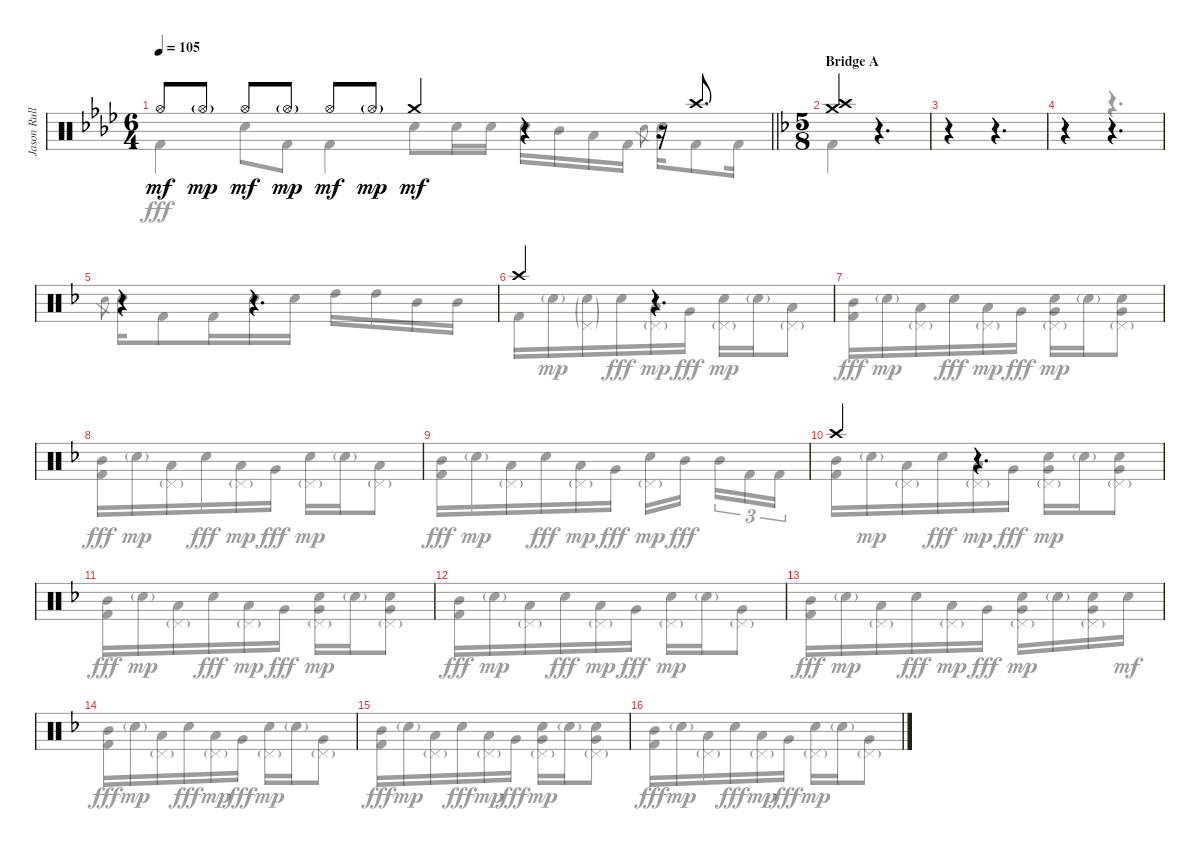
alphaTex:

\track ("Jason Rullo Drums" "Jason Rull") {instrument percussion}
\staff {score}
\articulation defaults
\voice
\ts (6 4)
\tempo 105
\clef neutral
\barLineRight lightlight
\ks fminor "Hi-Hat (open)".8{dy mf} "Hi-Hat (open)"{g}.8{dy mp} "Hi-Hat (open)".8{dy mf} "Hi-Hat (open)"{g}.8{dy mp} "Hi-Hat (open)".8{dy mf} "Hi-Hat (open)"{g}.8{dy mp} "Crash medium (hit)".4{dy mf}
r.4 r.16 "Crash high (hit)".8{d} |
\ts (5 8)
\section ("" "Bridge A")
\ks dminor
("Crash high (hit)" "Crash medium (hit)").4 r.4{d} |
r.4 r.4{d} |
r.4 r.4{d} |
r.4 r.4{d} |
"Crash high (hit)".4 r.4{d} |
|
|
|
"Crash high (hit)".4 r.4{d} |
|
|
|
|
|
\voice
\clef neutral
\ottava regular
\simile none
\barLineRight lightlight
\ks fminor "Kick (hit) 2".4{dy fff} "Electric Snare (hit)".8 "Kick (hit) 2".8 "Kick (hit) 2".4 "Electric Snare (hit)".8 "Electric Snare (hit)".16 "Electric Snare (hit)".16 "Electric Snare (hit)".16 "Mid Tom (hit)".16 "Low Tom (hit)".16 "Kick (hit) 2".16 "Electric Snare (hit)".8{gr} "Electric Snare (hit)".16 "Kick (hit) 2".8 "Kick (hit) 2".16
|
\ks dminor "Kick (hit) 2".4
r.4{d} |
r.4 r.4{d} |
r.4 r.4{d} |
"Electric Snare (hit)".8{gr} "Electric Snare (hit)".16 "Kick (hit) 2".8 "Kick (hit) 2".16 "Electric Snare (hit)".16 "Electric Snare (hit)".16 "High Tom (hit)".16 "High Tom (hit)".16 "Mid Tom (hit)".16 "Mid Tom (hit)".16 |
"Kick (hit) 2".16 "Electric Snare (hit)"{g}.16{dy mp} ("Electric Snare (hit)"{g} "Pedal Hi-Hat (hit)"{g}).16 "Electric Snare (hit)".16{dy fff} ("Low Tom (hit)" "Pedal Hi-Hat (hit)"{g}).16{dy mp} "Very Low Tom (hit)".16{dy fff} ("Electric Snare (hit)" "Pedal Hi-Hat (hit)"{g}).16{dy mp} "Electric Snare (hit)"{g}.16 ("Low Tom (hit)" "Pedal Hi-Hat (hit)"{g}).8 |
("Mid Tom (hit)" "Kick (hit) 2").16{dy fff} "Electric Snare (hit)"{g}.16{dy mp} ("Low Tom (hit)" "Pedal Hi-Hat (hit)"{g}).16 "Electric Snare (hit)".16{dy fff} ("Low Tom (hit)" "Pedal Hi-Hat (hit)"{g}).16{dy mp} "Very Low Tom (hit)".16{dy fff} ("Electric Snare (hit)" "Very Low Tom (hit)" "Pedal Hi-Hat (hit)"{g}).16{dy mp} "Electric Snare (hit)"{g}.16 ("Electric Snare (hit)" "Very Low Tom (hit)" "Pedal Hi-Hat (hit)"{g}).8 |
("Mid Tom (hit)" "Kick (hit) 2").16{dy fff} "Electric Snare (hit)"{g}.16{dy mp} ("Low Tom (hit)" "Pedal Hi-Hat (hit)"{g}).16 "Electric Snare (hit)".16{dy fff} ("Low Tom (hit)" "Pedal Hi-Hat (hit)"{g}).16{dy mp} "Very Low Tom (hit)".16{dy fff} ("Electric Snare (hit)" "Pedal Hi-Hat (hit)"{g}).16{dy mp} "Electric Snare (hit)"{g}.16 ("Low Tom (hit)" "Pedal Hi-Hat (hit)"{g}).8 |
("Mid Tom (hit)" "Kick (hit) 2").16{dy fff} "Electric Snare (hit)"{g}.16{dy mp} ("Low Tom (hit)" "Pedal Hi-Hat (hit)"{g}).16 "Electric Snare (hit)".16{dy fff} ("Low Tom (hit)" "Pedal Hi-Hat (hit)"{g}).16{dy mp} "Very Low Tom (hit)".16{dy fff} ("Electric Snare (hit)" "Pedal Hi-Hat (hit)"{g}).16{dy mp} "Mid Tom (hit)".16{dy fff} "Mid Tom (hit)".16{tu (3 2)} "Kick (hit) 2".16{tu (3 2)} "Kick (hit) 2".16{tu (3 2)} |
("Mid Tom (hit)" "Kick (hit) 2").16 "Electric Snare (hit)"{g}.16{dy mp} ("Low Tom (hit)" "Pedal Hi-Hat (hit)"{g}).16 "Electric Snare (hit)".16{dy fff} ("Low Tom (hit)" "Pedal Hi-Hat (hit)"{g}).16{dy mp} "Very Low Tom (hit)".16{dy fff} ("Electric Snare (hit)" "Very Low Tom (hit)" "Pedal Hi-Hat (hit)"{g}).16{dy mp} "Electric Snare (hit)"{g}.16 ("Electric Snare (hit)" "Very Low Tom (hit)" "Pedal Hi-Hat (hit)"{g}).8 |
("Mid Tom (hit)" "Kick (hit) 2").16{dy fff} "Electric Snare (hit)"{g}.16{dy mp} ("Low Tom (hit)" "Pedal Hi-Hat (hit)"{g}).16 "Electric Snare (hit)".16{dy fff} ("Low Tom (hit)" "Pedal Hi-Hat (hit)"{g}).16{dy mp} "Very Low Tom (hit)".16{dy fff} ("Electric Snare (hit)" "Very Low Tom (hit)" "Pedal Hi-Hat (hit)"{g}).16{dy mp} "Electric Snare (hit)"{g}.16 ("Electric Snare (hit)" "Very Low Tom (hit)" "Pedal Hi-Hat (hit)"{g}).8 |
("Mid Tom (hit)" "Kick (hit) 2").16{dy fff} "Electric Snare (hit)"{g}.16{dy mp} ("Low Tom (hit)" "Pedal Hi-Hat (hit)"{g}).16 "Electric Snare (hit)".16{dy fff} ("Low Tom (hit)" "Pedal Hi-Hat (hit)"{g}).16{dy mp} "Very Low Tom (hit)".16{dy fff} ("Electric Snare (hit)" "Pedal Hi-Hat (hit)"{g}).16{dy mp} "Electric Snare (hit)"{g}.16 ("Very Low Tom (hit)" "Pedal Hi-Hat (hit)"{g}).8 |
("Mid Tom (hit)" "Kick (hit) 2").16{dy fff} "Electric Snare (hit)"{g}.16{dy mp} ("Low Tom (hit)" "Pedal Hi-Hat (hit)"{g}).16 "Electric Snare (hit)".16{dy fff} ("Low Tom (hit)" "Pedal Hi-Hat (hit)"{g}).16{dy mp} "Very Low Tom (hit)".16{dy fff} ("Electric Snare (hit)" "Very Low Tom (hit)" "Pedal Hi-Hat (hit)"{g}).16{dy mp} "Electric Snare (hit)"{g}.16 ("Electric Snare (hit)" "Very Low Tom (hit)" "Pedal Hi-Hat (hit)"{g}).16 "Electric Snare (hit)".16{dy mf} |
("Mid Tom (hit)" "Kick (hit) 2").16{dy fff} "Electric Snare (hit)"{g}.16{dy mp} ("Low Tom (hit)" "Pedal Hi-Hat (hit)"{g}).16 "Electric Snare (hit)".16{dy fff} ("Low Tom (hit)" "Pedal Hi-Hat (hit)"{g}).16{dy mp} "Very Low Tom (hit)".16{dy fff} ("Electric Snare (hit)" "Pedal Hi-Hat (hit)"{g}).16{dy mp} "Electric Snare (hit)"{g}.16 ("Very Low Tom (hit)" "Pedal Hi-Hat (hit)"{g}).8 |
("Mid Tom (hit)" "Kick (hit) 2").16{dy fff} "Electric Snare (hit)"{g}.16{dy mp} ("Low Tom (hit)" "Pedal Hi-Hat (hit)"{g}).16 "Electric Snare (hit)".16{dy fff} ("Low Tom (hit)" "Pedal Hi-Hat (hit)"{g}).16{dy mp} "Very Low Tom (hit)".16{dy fff} ("Electric Snare (hit)" "Very Low Tom (hit)" "Pedal Hi-Hat (hit)"{g}).16{dy mp} "Electric Snare (hit)"{g}.16 ("Electric Snare (hit)" "Very Low Tom (hit)" "Pedal Hi-Hat (hit)"{g}).8 |
("Mid Tom (hit)" "Kick (hit) 2").16{dy fff} "Electric Snare (hit)"{g}.16{dy mp} ("Low Tom (hit)" "Pedal Hi-Hat (hit)"{g}).16 "Electric Snare (hit)".16{dy fff} ("Low Tom (hit)" "Pedal Hi-Hat (hit)"{g}).16{dy mp} "Very Low Tom (hit)".16{dy fff} ("Electric Snare (hit)" "Pedal Hi-Hat (hit)"{g}).16{dy mp} "Electric Snare (hit)"{g}.16 ("Very Low Tom (hit)" "Pedal Hi-Hat (hit)"{g}).8
